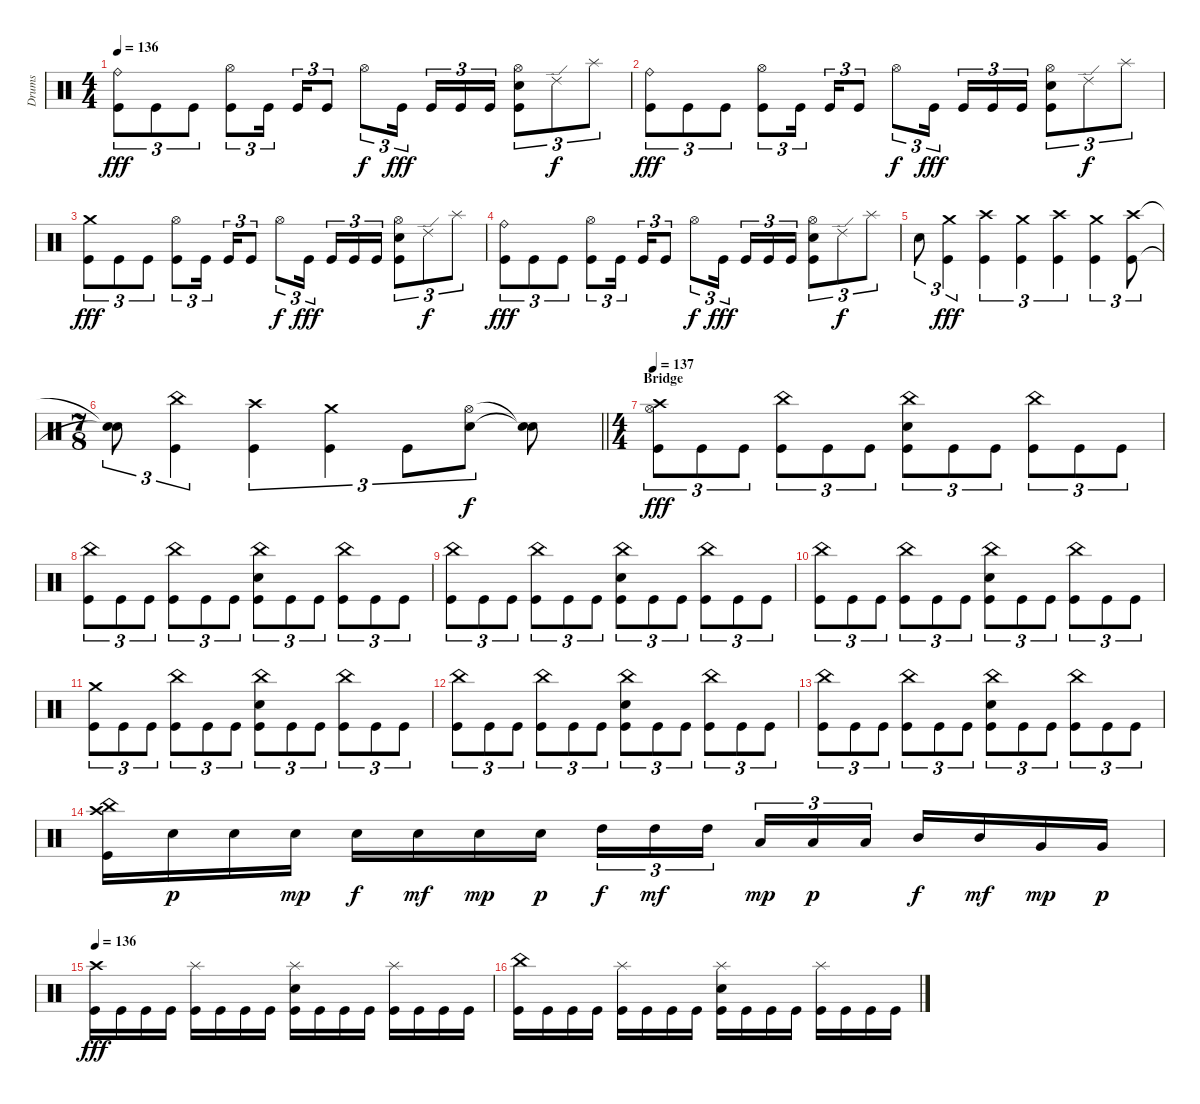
\track ("Drums" "Drums") {instrument percussion}
\staff {score}
\articulation defaults
\ts (4 4)
\tempo 136
\clef neutral
\ks c
("Ride (bell)" "Kick (hit)").8{tu (3 2) dy fff} "Kick (hit)".8{tu (3 2)} "Kick (hit)".8{tu (3 2)} ("Hi-Hat (open)" "Kick (hit)").8{tu (3 2)} "Kick (hit)".16{tu (3 2) beam splitsecondary} "Kick (hit)".16{tu (3 2)} "Kick (hit)".8{tu (3 2)} "Hi-Hat (open)".8{tu (3 2) dy f} "Kick (hit)".16{tu (3 2) dy fff beam splitsecondary} "Kick (hit)".16{tu (3 2)} "Kick (hit)".16{tu (3 2)} "Kick (hit)".16{tu (3 2)} ("Hi-Hat (open)" "Electric Snare (hit)" "Kick (hit)").8{tu (3 2)} "Ride (edge) 2".8{tu (3 2) dy f} "Splash (hit)".8{tu (3 2)} |
("Ride (bell)" "Kick (hit)").8{tu (3 2) dy fff} "Kick (hit)".8{tu (3 2)} "Kick (hit)".8{tu (3 2)} ("Hi-Hat (open)" "Kick (hit)").8{tu (3 2)} "Kick (hit)".16{tu (3 2) beam splitsecondary} "Kick (hit)".16{tu (3 2)} "Kick (hit)".8{tu (3 2)} "Hi-Hat (open)".8{tu (3 2) dy f} "Kick (hit)".16{tu (3 2) dy fff beam splitsecondary} "Kick (hit)".16{tu (3 2)} "Kick (hit)".16{tu (3 2)} "Kick (hit)".16{tu (3 2)} ("Hi-Hat (open)" "Electric Snare (hit)" "Kick (hit)").8{tu (3 2)} "Ride (edge) 2".8{tu (3 2) dy f} "Splash (hit)".8{tu (3 2)} |
("Crash medium (hit)" "Kick (hit)").8{tu (3 2) dy fff} "Kick (hit)".8{tu (3 2)} "Kick (hit)".8{tu (3 2)} ("Hi-Hat (open)" "Kick (hit)").8{tu (3 2)} "Kick (hit)".16{tu (3 2) beam splitsecondary} "Kick (hit)".16{tu (3 2)} "Kick (hit)".8{tu (3 2)} "Hi-Hat (open)".8{tu (3 2) dy f} "Kick (hit)".16{tu (3 2) dy fff beam splitsecondary} "Kick (hit)".16{tu (3 2)} "Kick (hit)".16{tu (3 2)} "Kick (hit)".16{tu (3 2)} ("Hi-Hat (open)" "Electric Snare (hit)" "Kick (hit)").8{tu (3 2)} "Ride (edge) 2".8{tu (3 2) dy f} "Splash (hit)".8{tu (3 2)} |
("Ride (bell)" "Kick (hit)").8{tu (3 2) dy fff} "Kick (hit)".8{tu (3 2)} "Kick (hit)".8{tu (3 2)} ("Hi-Hat (open)" "Kick (hit)").8{tu (3 2)} "Kick (hit)".16{tu (3 2) beam splitsecondary} "Kick (hit)".16{tu (3 2)} "Kick (hit)".8{tu (3 2)} "Hi-Hat (open)".8{tu (3 2) dy f} "Kick (hit)".16{tu (3 2) dy fff beam splitsecondary} "Kick (hit)".16{tu (3 2)} "Kick (hit)".16{tu (3 2)} "Kick (hit)".16{tu (3 2)} ("Hi-Hat (open)" "Electric Snare (hit)" "Kick (hit)").8{tu (3 2)} "Ride (edge) 2".8{tu (3 2) dy f} "Splash (hit)".8{tu (3 2)} |
"Electric Snare (hit)".8{tu (3 2)} ("Crash medium (hit)" "Kick (hit)").4{tu (3 2) dy fff} ("Crash high (hit)" "Kick (hit)").4{tu (3 2)} ("Crash medium (hit)" "Kick (hit)").4{tu (3 2)} ("Crash high (hit)" "Kick (hit)").4{tu (3 2)} ("Crash medium (hit)" "Kick (hit)").4{tu (3 2)} ("Crash high (hit)" "Kick (hit)").8{tu (3 2)} |
\ts (7 8)
\barLineRight lightlight
("Snare (hit)"{t} "Snare (hit)"{t}).8{tu (3 2)} ("China (hit)" "Kick (hit)").4{tu (3 2)} ("Crash high (hit)" "Kick (hit)").4{tu (3 2)} ("Crash medium (hit)" "Kick (hit)").4{tu (3 2)} "Kick (hit)".8{tu (3 2)} ("Hi-Hat (open)" "Electric Snare (hit)").8{tu (3 2) dy f} ("Snare (hit)"{t} "Snare (hit)"{t}).8 |
\ts (4 4)
\section ("" "Bridge")
\tempo 137
("Crash high (hit)" "Hi-Hat (open)" "Kick (hit)").8{tu (3 2) dy fff} "Kick (hit)".8{tu (3 2)} "Kick (hit)".8{tu (3 2)} ("China (hit)" "Kick (hit)").8{tu (3 2)} "Kick (hit)".8{tu (3 2)} "Kick (hit)".8{tu (3 2)} ("China (hit)" "Electric Snare (hit)" "Kick (hit)").8{tu (3 2)} "Kick (hit)".8{tu (3 2)} "Kick (hit)".8{tu (3 2)} ("China (hit)" "Kick (hit)").8{tu (3 2)} "Kick (hit)".8{tu (3 2)} "Kick (hit)".8{tu (3 2)} |
("China (hit)" "Kick (hit)").8{tu (3 2)} "Kick (hit)".8{tu (3 2)} "Kick (hit)".8{tu (3 2)} ("China (hit)" "Kick (hit)").8{tu (3 2)} "Kick (hit)".8{tu (3 2)} "Kick (hit)".8{tu (3 2)} ("China (hit)" "Electric Snare (hit)" "Kick (hit)").8{tu (3 2)} "Kick (hit)".8{tu (3 2)} "Kick (hit)".8{tu (3 2)} ("China (hit)" "Kick (hit)").8{tu (3 2)} "Kick (hit)".8{tu (3 2)} "Kick (hit)".8{tu (3 2)} |
("China (hit)" "Kick (hit)").8{tu (3 2)} "Kick (hit)".8{tu (3 2)} "Kick (hit)".8{tu (3 2)} ("China (hit)" "Kick (hit)").8{tu (3 2)} "Kick (hit)".8{tu (3 2)} "Kick (hit)".8{tu (3 2)} ("China (hit)" "Electric Snare (hit)" "Kick (hit)").8{tu (3 2)} "Kick (hit)".8{tu (3 2)} "Kick (hit)".8{tu (3 2)} ("China (hit)" "Kick (hit)").8{tu (3 2)} "Kick (hit)".8{tu (3 2)} "Kick (hit)".8{tu (3 2)} |
("China (hit)" "Kick (hit)").8{tu (3 2)} "Kick (hit)".8{tu (3 2)} "Kick (hit)".8{tu (3 2)} ("China (hit)" "Kick (hit)").8{tu (3 2)} "Kick (hit)".8{tu (3 2)} "Kick (hit)".8{tu (3 2)} ("China (hit)" "Electric Snare (hit)" "Kick (hit)").8{tu (3 2)} "Kick (hit)".8{tu (3 2)} "Kick (hit)".8{tu (3 2)} ("China (hit)" "Kick (hit)").8{tu (3 2)} "Kick (hit)".8{tu (3 2)} "Kick (hit)".8{tu (3 2)} |
("Crash medium (hit)" "Kick (hit)").8{tu (3 2)} "Kick (hit)".8{tu (3 2)} "Kick (hit)".8{tu (3 2)} ("China (hit)" "Kick (hit)").8{tu (3 2)} "Kick (hit)".8{tu (3 2)} "Kick (hit)".8{tu (3 2)} ("China (hit)" "Electric Snare (hit)" "Kick (hit)").8{tu (3 2)} "Kick (hit)".8{tu (3 2)} "Kick (hit)".8{tu (3 2)} ("China (hit)" "Kick (hit)").8{tu (3 2)} "Kick (hit)".8{tu (3 2)} "Kick (hit)".8{tu (3 2)} |
("China (hit)" "Kick (hit)").8{tu (3 2)} "Kick (hit)".8{tu (3 2)} "Kick (hit)".8{tu (3 2)} ("China (hit)" "Kick (hit)").8{tu (3 2)} "Kick (hit)".8{tu (3 2)} "Kick (hit)".8{tu (3 2)} ("China (hit)" "Electric Snare (hit)" "Kick (hit)").8{tu (3 2)} "Kick (hit)".8{tu (3 2)} "Kick (hit)".8{tu (3 2)} ("China (hit)" "Kick (hit)").8{tu (3 2)} "Kick (hit)".8{tu (3 2)} "Kick (hit)".8{tu (3 2)} |
("China (hit)" "Kick (hit)").8{tu (3 2)} "Kick (hit)".8{tu (3 2)} "Kick (hit)".8{tu (3 2)} ("China (hit)" "Kick (hit)").8{tu (3 2)} "Kick (hit)".8{tu (3 2)} "Kick (hit)".8{tu (3 2)} ("China (hit)" "Electric Snare (hit)" "Kick (hit)").8{tu (3 2)} "Kick (hit)".8{tu (3 2)} "Kick (hit)".8{tu (3 2)} ("China (hit)" "Kick (hit)").8{tu (3 2)} "Kick (hit)".8{tu (3 2)} "Kick (hit)".8{tu (3 2)} |
("Crash high (hit)" "China (hit)" "Kick (hit)").16 "Electric Snare (hit)".16{dy p} "Electric Snare (hit)".16 "Electric Snare (hit)".16{dy mp} "Electric Snare (hit)".16{dy f} "Electric Snare (hit)".16{dy mf} "Electric Snare (hit)".16{dy mp} "Electric Snare (hit)".16{dy p} "High Tom (hit)".16{tu (3 2) dy f} "High Tom (hit)".16{tu (3 2) dy mf} "High Tom (hit)".16{tu (3 2) beam splitsecondary} "Low Tom (hit)".16{tu (3 2) dy mp} "Low Tom (hit)".16{tu (3 2) dy p} "Low Tom (hit)".16{tu (3 2)} "Mid Tom (hit)".16{dy f} "Mid Tom (hit)".16{dy mf} "Very Low Tom (hit)".16{dy mp} "Very Low Tom (hit)".16{dy p} |
\tempo 136
("Crash high (hit)" "Kick (hit)").16{dy fff} "Kick (hit)".16 "Kick (hit)".16 "Kick (hit)".16 ("Splash (hit)" "Kick (hit)").16 "Kick (hit)".16 "Kick (hit)".16 "Kick (hit)".16 ("Splash (hit)" "Electric Snare (hit)" "Kick (hit)").16 "Kick (hit)".16 "Kick (hit)".16 "Kick (hit)".16 ("Splash (hit)" "Kick (hit)").16 "Kick (hit)".16 "Kick (hit)".16 "Kick (hit)".16 |
("China (hit)" "Kick (hit)").16 "Kick (hit)".16 "Kick (hit)".16 "Kick (hit)".16 ("Splash (hit)" "Kick (hit)").16 "Kick (hit)".16 "Kick (hit)".16 "Kick (hit)".16 ("Splash (hit)" "Electric Snare (hit)" "Kick (hit)").16 "Kick (hit)".16 "Kick (hit)".16 "Kick (hit)".16 ("Splash (hit)" "Kick (hit)").16 "Kick (hit)".16 "Kick (hit)".16 "Kick (hit)".16
